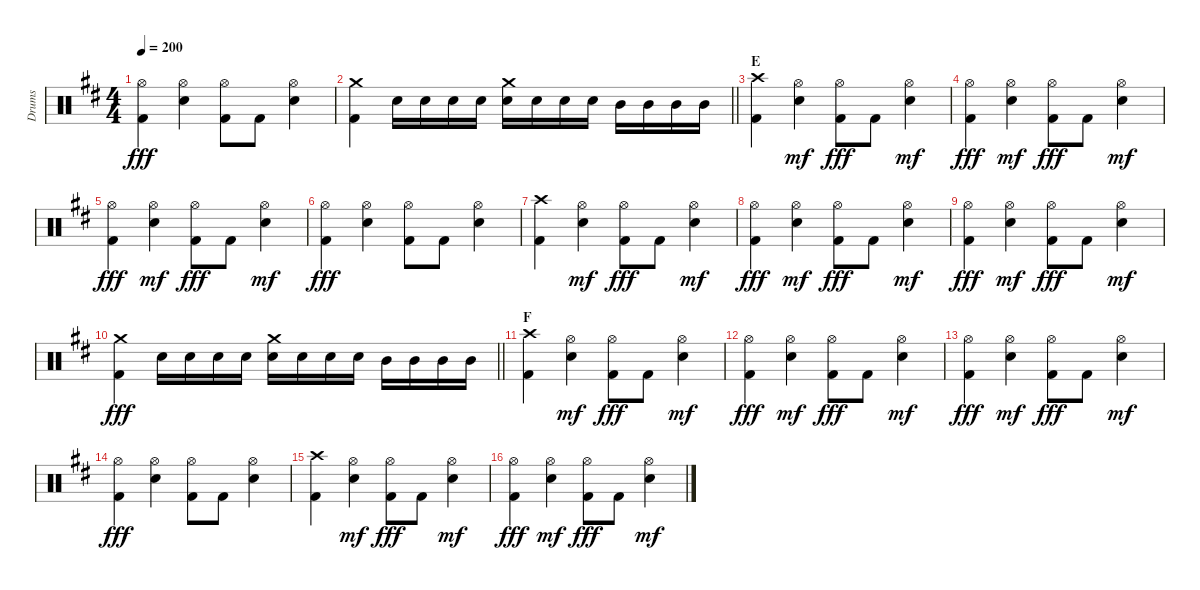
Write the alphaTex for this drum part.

\track ("Drums" "Drums") {instrument percussion}
\staff {score}
\articulation defaults
\ts (4 4)
\tempo 200
\clef neutral
\ks d
("Hi-Hat (open)" "Kick (hit) 2").4{dy fff} ("Hi-Hat (open)" "Snare (hit) 2").4 ("Hi-Hat (open)" "Kick (hit) 2").8 "Kick (hit) 2".8 ("Hi-Hat (open)" "Snare (hit) 2").4 |
\barLineRight lightlight
("Crash medium (hit)" "Kick (hit) 2").4 "Snare (hit) 2".16 "Snare (hit) 2".16 "Snare (hit) 2".16 "Snare (hit) 2".16 ("Crash medium (hit)" "Snare (hit) 2").16 "Snare (hit) 2".16 "Snare (hit) 2".16 "Snare (hit) 2".16 "Mid Tom (hit)".16 "Mid Tom (hit)".16 "Mid Tom (hit)".16 "Mid Tom (hit)".16 |
\section ("" "E")
("Crash high (hit)" "Kick (hit) 2").4 ("Hi-Hat (open)" "Snare (hit) 2").4{dy mf} ("Hi-Hat (open)" "Kick (hit) 2").8{dy fff} "Kick (hit) 2".8 ("Hi-Hat (open)" "Snare (hit) 2").4{dy mf} |
("Hi-Hat (open)" "Kick (hit) 2").4{dy fff} ("Hi-Hat (open)" "Snare (hit) 2").4{dy mf} ("Hi-Hat (open)" "Kick (hit) 2").8{dy fff} "Kick (hit) 2".8 ("Hi-Hat (open)" "Snare (hit) 2").4{dy mf} |
("Hi-Hat (open)" "Kick (hit) 2").4{dy fff} ("Hi-Hat (open)" "Snare (hit) 2").4{dy mf} ("Hi-Hat (open)" "Kick (hit) 2").8{dy fff} "Kick (hit) 2".8 ("Hi-Hat (open)" "Snare (hit) 2").4{dy mf} |
("Hi-Hat (open)" "Kick (hit) 2").4{dy fff} ("Hi-Hat (open)" "Snare (hit) 2").4 ("Hi-Hat (open)" "Kick (hit) 2").8 "Kick (hit) 2".8 ("Hi-Hat (open)" "Snare (hit) 2").4 |
("Crash high (hit)" "Kick (hit) 2").4 ("Hi-Hat (open)" "Snare (hit) 2").4{dy mf} ("Hi-Hat (open)" "Kick (hit) 2").8{dy fff} "Kick (hit) 2".8 ("Hi-Hat (open)" "Snare (hit) 2").4{dy mf} |
("Hi-Hat (open)" "Kick (hit) 2").4{dy fff} ("Hi-Hat (open)" "Snare (hit) 2").4{dy mf} ("Hi-Hat (open)" "Kick (hit) 2").8{dy fff} "Kick (hit) 2".8 ("Hi-Hat (open)" "Snare (hit) 2").4{dy mf} |
("Hi-Hat (open)" "Kick (hit) 2").4{dy fff} ("Hi-Hat (open)" "Snare (hit) 2").4{dy mf} ("Hi-Hat (open)" "Kick (hit) 2").8{dy fff} "Kick (hit) 2".8 ("Hi-Hat (open)" "Snare (hit) 2").4{dy mf} |
\barLineRight lightlight
("Crash medium (hit)" "Kick (hit) 2").4{dy fff} "Snare (hit) 2".16 "Snare (hit) 2".16 "Snare (hit) 2".16 "Snare (hit) 2".16 ("Crash medium (hit)" "Snare (hit) 2").16 "Snare (hit) 2".16 "Snare (hit) 2".16 "Snare (hit) 2".16 "Mid Tom (hit)".16 "Mid Tom (hit)".16 "Mid Tom (hit)".16 "Mid Tom (hit)".16 |
\section ("" "F")
("Crash high (hit)" "Kick (hit) 2").4 ("Hi-Hat (open)" "Snare (hit) 2").4{dy mf} ("Hi-Hat (open)" "Kick (hit) 2").8{dy fff} "Kick (hit) 2".8 ("Hi-Hat (open)" "Snare (hit) 2").4{dy mf} |
("Hi-Hat (open)" "Kick (hit) 2").4{dy fff} ("Hi-Hat (open)" "Snare (hit) 2").4{dy mf} ("Hi-Hat (open)" "Kick (hit) 2").8{dy fff} "Kick (hit) 2".8 ("Hi-Hat (open)" "Snare (hit) 2").4{dy mf} |
("Hi-Hat (open)" "Kick (hit) 2").4{dy fff} ("Hi-Hat (open)" "Snare (hit) 2").4{dy mf} ("Hi-Hat (open)" "Kick (hit) 2").8{dy fff} "Kick (hit) 2".8 ("Hi-Hat (open)" "Snare (hit) 2").4{dy mf} |
("Hi-Hat (open)" "Kick (hit) 2").4{dy fff} ("Hi-Hat (open)" "Snare (hit) 2").4 ("Hi-Hat (open)" "Kick (hit) 2").8 "Kick (hit) 2".8 ("Hi-Hat (open)" "Snare (hit) 2").4 |
("Crash high (hit)" "Kick (hit) 2").4 ("Hi-Hat (open)" "Snare (hit) 2").4{dy mf} ("Hi-Hat (open)" "Kick (hit) 2").8{dy fff} "Kick (hit) 2".8 ("Hi-Hat (open)" "Snare (hit) 2").4{dy mf} |
("Hi-Hat (open)" "Kick (hit) 2").4{dy fff} ("Hi-Hat (open)" "Snare (hit) 2").4{dy mf} ("Hi-Hat (open)" "Kick (hit) 2").8{dy fff} "Kick (hit) 2".8 ("Hi-Hat (open)" "Snare (hit) 2").4{dy mf}
